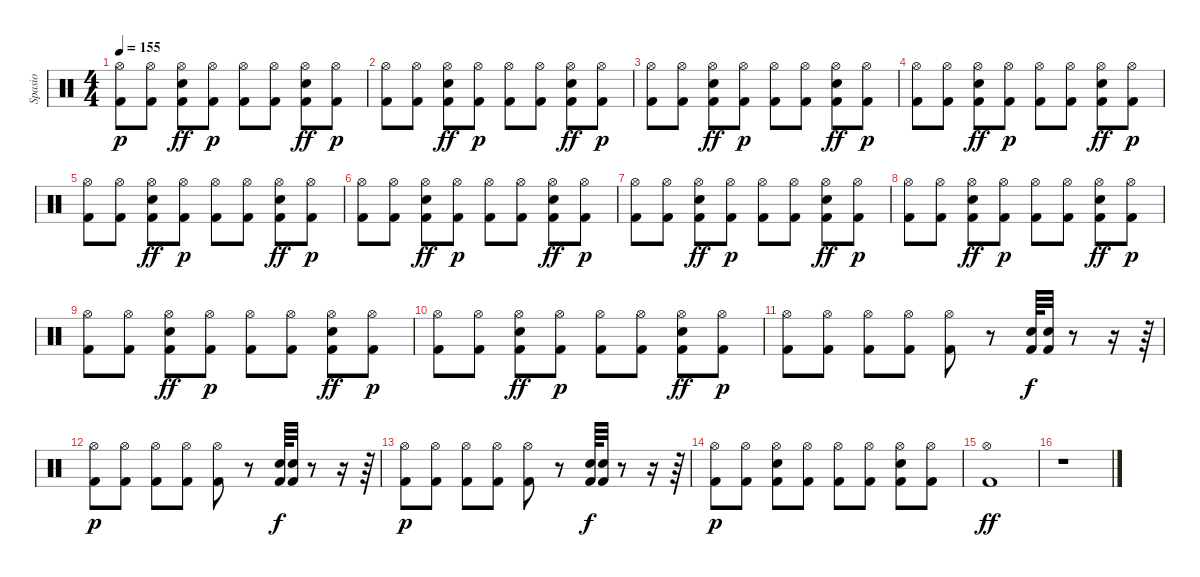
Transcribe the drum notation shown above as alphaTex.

\track ("Spasio" "Spasio") {instrument percussion}
\staff {score}
\articulation defaults
\ts (4 4)
\tempo 155
\clef neutral
\ks c
("Hi-Hat (open)" "Kick (hit) 2").8{dy p} ("Hi-Hat (open)" "Kick (hit) 2").8 ("Hi-Hat (open)" "Electric Snare (hit)" "Kick (hit) 2").8{dy ff} ("Hi-Hat (open)" "Kick (hit) 2").8{dy p} ("Hi-Hat (open)" "Kick (hit) 2").8 ("Hi-Hat (open)" "Kick (hit) 2").8 ("Hi-Hat (open)" "Electric Snare (hit)" "Kick (hit) 2").8{dy ff} ("Hi-Hat (open)" "Kick (hit) 2").8{dy p} |
("Hi-Hat (open)" "Kick (hit) 2").8 ("Hi-Hat (open)" "Kick (hit) 2").8 ("Hi-Hat (open)" "Electric Snare (hit)" "Kick (hit) 2").8{dy ff} ("Hi-Hat (open)" "Kick (hit) 2").8{dy p} ("Hi-Hat (open)" "Kick (hit) 2").8 ("Hi-Hat (open)" "Kick (hit) 2").8 ("Hi-Hat (open)" "Electric Snare (hit)" "Kick (hit) 2").8{dy ff} ("Hi-Hat (open)" "Kick (hit) 2").8{dy p} |
("Hi-Hat (open)" "Kick (hit) 2").8 ("Hi-Hat (open)" "Kick (hit) 2").8 ("Hi-Hat (open)" "Electric Snare (hit)" "Kick (hit) 2").8{dy ff} ("Hi-Hat (open)" "Kick (hit) 2").8{dy p} ("Hi-Hat (open)" "Kick (hit) 2").8 ("Hi-Hat (open)" "Kick (hit) 2").8 ("Hi-Hat (open)" "Electric Snare (hit)" "Kick (hit) 2").8{dy ff} ("Hi-Hat (open)" "Kick (hit) 2").8{dy p} |
("Hi-Hat (open)" "Kick (hit) 2").8 ("Hi-Hat (open)" "Kick (hit) 2").8 ("Hi-Hat (open)" "Electric Snare (hit)" "Kick (hit) 2").8{dy ff} ("Hi-Hat (open)" "Kick (hit) 2").8{dy p} ("Hi-Hat (open)" "Kick (hit) 2").8 ("Hi-Hat (open)" "Kick (hit) 2").8 ("Hi-Hat (open)" "Electric Snare (hit)" "Kick (hit) 2").8{dy ff} ("Hi-Hat (open)" "Kick (hit) 2").8{dy p} |
("Hi-Hat (open)" "Kick (hit) 2").8 ("Hi-Hat (open)" "Kick (hit) 2").8 ("Hi-Hat (open)" "Electric Snare (hit)" "Kick (hit) 2").8{dy ff} ("Hi-Hat (open)" "Kick (hit) 2").8{dy p} ("Hi-Hat (open)" "Kick (hit) 2").8 ("Hi-Hat (open)" "Kick (hit) 2").8 ("Hi-Hat (open)" "Electric Snare (hit)" "Kick (hit) 2").8{dy ff} ("Hi-Hat (open)" "Kick (hit) 2").8{dy p} |
("Hi-Hat (open)" "Kick (hit) 2").8 ("Hi-Hat (open)" "Kick (hit) 2").8 ("Hi-Hat (open)" "Electric Snare (hit)" "Kick (hit) 2").8{dy ff} ("Hi-Hat (open)" "Kick (hit) 2").8{dy p} ("Hi-Hat (open)" "Kick (hit) 2").8 ("Hi-Hat (open)" "Kick (hit) 2").8 ("Hi-Hat (open)" "Electric Snare (hit)" "Kick (hit) 2").8{dy ff} ("Hi-Hat (open)" "Kick (hit) 2").8{dy p} |
("Hi-Hat (open)" "Kick (hit) 2").8 ("Hi-Hat (open)" "Kick (hit) 2").8 ("Hi-Hat (open)" "Electric Snare (hit)" "Kick (hit) 2").8{dy ff} ("Hi-Hat (open)" "Kick (hit) 2").8{dy p} ("Hi-Hat (open)" "Kick (hit) 2").8 ("Hi-Hat (open)" "Kick (hit) 2").8 ("Hi-Hat (open)" "Electric Snare (hit)" "Kick (hit) 2").8{dy ff} ("Hi-Hat (open)" "Kick (hit) 2").8{dy p} |
("Hi-Hat (open)" "Kick (hit) 2").8 ("Hi-Hat (open)" "Kick (hit) 2").8 ("Hi-Hat (open)" "Electric Snare (hit)" "Kick (hit) 2").8{dy ff} ("Hi-Hat (open)" "Kick (hit) 2").8{dy p} ("Hi-Hat (open)" "Kick (hit) 2").8 ("Hi-Hat (open)" "Kick (hit) 2").8 ("Hi-Hat (open)" "Electric Snare (hit)" "Kick (hit) 2").8{dy ff} ("Hi-Hat (open)" "Kick (hit) 2").8{dy p} |
("Hi-Hat (open)" "Kick (hit) 2").8 ("Hi-Hat (open)" "Kick (hit) 2").8 ("Hi-Hat (open)" "Electric Snare (hit)" "Kick (hit) 2").8{dy ff} ("Hi-Hat (open)" "Kick (hit) 2").8{dy p} ("Hi-Hat (open)" "Kick (hit) 2").8 ("Hi-Hat (open)" "Kick (hit) 2").8 ("Hi-Hat (open)" "Electric Snare (hit)" "Kick (hit) 2").8{dy ff} ("Hi-Hat (open)" "Kick (hit) 2").8{dy p} |
("Hi-Hat (open)" "Kick (hit) 2").8 ("Hi-Hat (open)" "Kick (hit) 2").8 ("Hi-Hat (open)" "Electric Snare (hit)" "Kick (hit) 2").8{dy ff} ("Hi-Hat (open)" "Kick (hit) 2").8{dy p} ("Hi-Hat (open)" "Kick (hit) 2").8 ("Hi-Hat (open)" "Kick (hit) 2").8 ("Hi-Hat (open)" "Electric Snare (hit)" "Kick (hit) 2").8{dy ff} ("Hi-Hat (open)" "Kick (hit) 2").8{dy p} |
("Hi-Hat (open)" "Kick (hit) 2").8 ("Hi-Hat (open)" "Kick (hit) 2").8 ("Hi-Hat (open)" "Kick (hit) 2").8 ("Hi-Hat (open)" "Kick (hit) 2").8 ("Hi-Hat (open)" "Kick (hit) 2").8 r.8 ("Electric Snare (hit)" "Kick (hit) 2").64{dy f} ("Electric Snare (hit)" "Kick (hit) 2").32 r.8 r.16 r.64 |
("Hi-Hat (open)" "Kick (hit) 2").8{dy p} ("Hi-Hat (open)" "Kick (hit) 2").8 ("Hi-Hat (open)" "Kick (hit) 2").8 ("Hi-Hat (open)" "Kick (hit) 2").8 ("Hi-Hat (open)" "Kick (hit) 2").8 r.8 ("Electric Snare (hit)" "Kick (hit) 2").64{dy f} ("Electric Snare (hit)" "Kick (hit) 2").32 r.8 r.16 r.64 |
("Hi-Hat (open)" "Kick (hit) 2").8{dy p} ("Hi-Hat (open)" "Kick (hit) 2").8 ("Hi-Hat (open)" "Kick (hit) 2").8 ("Hi-Hat (open)" "Kick (hit) 2").8 ("Hi-Hat (open)" "Kick (hit) 2").8 r.8 ("Electric Snare (hit)" "Kick (hit) 2").64{dy f} ("Electric Snare (hit)" "Kick (hit) 2").32 r.8 r.16 r.64 |
("Hi-Hat (open)" "Kick (hit) 2").8{dy p} ("Hi-Hat (open)" "Kick (hit) 2").8 ("Hi-Hat (open)" "Electric Snare (hit)" "Kick (hit) 2").8 ("Hi-Hat (open)" "Kick (hit) 2").8 ("Hi-Hat (open)" "Kick (hit) 2").8 ("Hi-Hat (open)" "Kick (hit) 2").8 ("Hi-Hat (open)" "Electric Snare (hit)" "Kick (hit) 2").8 ("Hi-Hat (open)" "Kick (hit) 2").8 |
("Hi-Hat (open)" "Kick (hit) 2").1{dy ff} |
r.1
